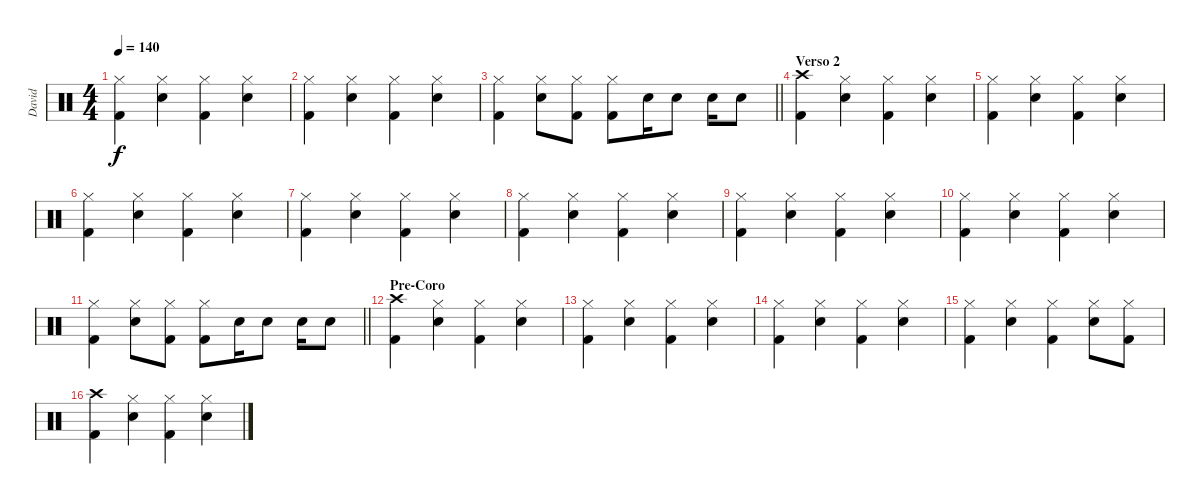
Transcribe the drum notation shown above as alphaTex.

\track ("David" "David") {instrument percussion}
\staff {score}
\articulation defaults
\ts (4 4)
\tempo 140
\clef neutral
\ks c
("Hi-Hat (closed)" "Kick (hit) 2").4{dy f} ("Hi-Hat (closed)" "Snare (hit) 2").4 ("Hi-Hat (closed)" "Kick (hit) 2").4 ("Hi-Hat (closed)" "Snare (hit) 2").4 |
("Hi-Hat (closed)" "Kick (hit) 2").4 ("Hi-Hat (closed)" "Snare (hit) 2").4 ("Hi-Hat (closed)" "Kick (hit) 2").4 ("Hi-Hat (closed)" "Snare (hit) 2").4 |
\barLineRight lightlight
("Hi-Hat (closed)" "Kick (hit) 2").4 ("Hi-Hat (closed)" "Snare (hit) 2").8 ("Hi-Hat (closed)" "Kick (hit) 2").8 ("Hi-Hat (closed)" "Kick (hit) 2").8 "Snare (hit) 2".16 "Snare (hit) 2".8 "Snare (hit) 2".16 "Snare (hit) 2".8 |
\section ("" "Verso 2")
("Crash high (hit)" "Kick (hit) 2").4 ("Hi-Hat (closed)" "Snare (hit) 2").4 ("Hi-Hat (closed)" "Kick (hit) 2").4 ("Hi-Hat (closed)" "Snare (hit) 2").4 |
("Hi-Hat (closed)" "Kick (hit) 2").4 ("Hi-Hat (closed)" "Snare (hit) 2").4 ("Hi-Hat (closed)" "Kick (hit) 2").4 ("Hi-Hat (closed)" "Snare (hit) 2").4 |
("Hi-Hat (closed)" "Kick (hit) 2").4 ("Hi-Hat (closed)" "Snare (hit) 2").4 ("Hi-Hat (closed)" "Kick (hit) 2").4 ("Hi-Hat (closed)" "Snare (hit) 2").4 |
("Hi-Hat (closed)" "Kick (hit) 2").4 ("Hi-Hat (closed)" "Snare (hit) 2").4 ("Hi-Hat (closed)" "Kick (hit) 2").4 ("Hi-Hat (closed)" "Snare (hit) 2").4 |
("Hi-Hat (closed)" "Kick (hit) 2").4 ("Hi-Hat (closed)" "Snare (hit) 2").4 ("Hi-Hat (closed)" "Kick (hit) 2").4 ("Hi-Hat (closed)" "Snare (hit) 2").4 |
("Hi-Hat (closed)" "Kick (hit) 2").4 ("Hi-Hat (closed)" "Snare (hit) 2").4 ("Hi-Hat (closed)" "Kick (hit) 2").4 ("Hi-Hat (closed)" "Snare (hit) 2").4 |
("Hi-Hat (closed)" "Kick (hit) 2").4 ("Hi-Hat (closed)" "Snare (hit) 2").4 ("Hi-Hat (closed)" "Kick (hit) 2").4 ("Hi-Hat (closed)" "Snare (hit) 2").4 |
\barLineRight lightlight
("Hi-Hat (closed)" "Kick (hit) 2").4 ("Hi-Hat (closed)" "Snare (hit) 2").8 ("Hi-Hat (closed)" "Kick (hit) 2").8 ("Hi-Hat (closed)" "Kick (hit) 2").8 "Snare (hit) 2".16 "Snare (hit) 2".8 "Snare (hit) 2".16 "Snare (hit) 2".8 |
\section ("" "Pre-Coro")
("Crash high (hit)" "Kick (hit) 2").4 ("Hi-Hat (closed)" "Snare (hit) 2").4 ("Hi-Hat (closed)" "Kick (hit) 2").4 ("Hi-Hat (closed)" "Snare (hit) 2").4 |
("Hi-Hat (closed)" "Kick (hit) 2").4 ("Hi-Hat (closed)" "Snare (hit) 2").4 ("Hi-Hat (closed)" "Kick (hit) 2").4 ("Hi-Hat (closed)" "Snare (hit) 2").4 |
("Hi-Hat (closed)" "Kick (hit) 2").4 ("Hi-Hat (closed)" "Snare (hit) 2").4 ("Hi-Hat (closed)" "Kick (hit) 2").4 ("Hi-Hat (closed)" "Snare (hit) 2").4 |
("Hi-Hat (closed)" "Kick (hit) 2").4 ("Hi-Hat (closed)" "Snare (hit) 2").4 ("Hi-Hat (closed)" "Kick (hit) 2").4 ("Hi-Hat (closed)" "Snare (hit) 2").8 ("Hi-Hat (closed)" "Kick (hit) 2").8 |
("Crash high (hit)" "Kick (hit) 2").4 ("Hi-Hat (closed)" "Snare (hit) 2").4 ("Hi-Hat (closed)" "Kick (hit) 2").4 ("Hi-Hat (closed)" "Snare (hit) 2").4
